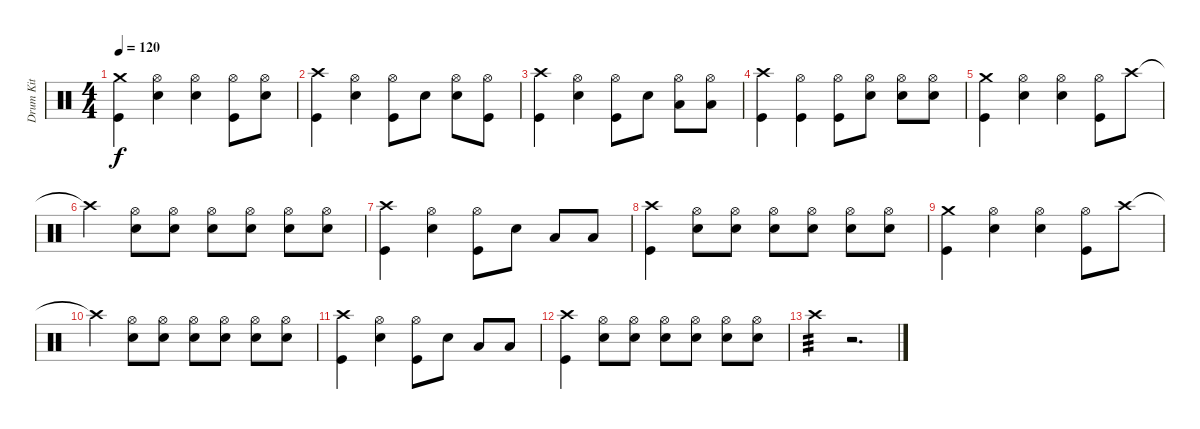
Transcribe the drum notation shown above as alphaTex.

\track ("Drum Kit" "Drum Kit") {instrument percussion}
\staff {score}
\articulation defaults
\ts (4 4)
\tempo 120
\clef neutral
\ks c
("Crash medium (hit)" "Kick (hit)").4{dy f} ("Hi-Hat (open)" "Snare (hit) 2").4 ("Hi-Hat (open)" "Snare (hit) 2").4 ("Hi-Hat (open)" "Kick (hit)").8 ("Hi-Hat (open)" "Snare (hit) 2").8 |
("Crash high (hit)" "Kick (hit)").4 ("Hi-Hat (open)" "Snare (hit) 2").4 ("Hi-Hat (open)" "Kick (hit)").8 "Snare (hit) 2".8 ("Hi-Hat (open)" "Snare (hit) 2").8 ("Hi-Hat (open)" "Kick (hit)").8 |
("Crash high (hit)" "Kick (hit)").4 ("Hi-Hat (open)" "Snare (hit) 2").4 ("Hi-Hat (open)" "Kick (hit)").8 "Snare (hit) 2".8 ("Hi-Hat (open)" "Low Tom (hit)").8 ("Hi-Hat (open)" "Low Floor Tom (hit)").8 |
("Crash high (hit)" "Kick (hit)").4 ("Hi-Hat (open)" "Kick (hit)").4 ("Hi-Hat (open)" "Kick (hit)").8 ("Hi-Hat (open)" "Snare (hit) 2").8 ("Hi-Hat (open)" "Snare (hit) 2").8 ("Hi-Hat (open)" "Snare (hit) 2").8 |
("Crash medium (hit)" "Kick (hit)").4 ("Hi-Hat (open)" "Snare (hit) 2").4 ("Hi-Hat (open)" "Snare (hit) 2").4 ("Hi-Hat (open)" "Kick (hit)").8 "Crash high (hit)".8 |
"Crash high (hit)"{t}.4 ("Hi-Hat (open)" "Snare (hit) 2").8 ("Hi-Hat (open)" "Snare (hit) 2").8 ("Hi-Hat (open)" "Snare (hit) 2").8 ("Hi-Hat (open)" "Snare (hit) 2").8 ("Hi-Hat (open)" "Snare (hit) 2").8 ("Hi-Hat (open)" "Snare (hit) 2").8 |
("Crash high (hit)" "Kick (hit)").4 ("Hi-Hat (open)" "Snare (hit) 2").4 ("Hi-Hat (open)" "Kick (hit)").8 "Snare (hit) 2".8 "Low Tom (hit)".8 "Low Floor Tom (hit)".8 |
("Crash high (hit)" "Kick (hit)").4 ("Hi-Hat (open)" "Snare (hit) 2").8 ("Hi-Hat (open)" "Snare (hit) 2").8 ("Hi-Hat (open)" "Snare (hit) 2").8 ("Hi-Hat (open)" "Snare (hit) 2").8 ("Hi-Hat (open)" "Snare (hit) 2").8 ("Hi-Hat (open)" "Snare (hit) 2").8 |
("Crash medium (hit)" "Kick (hit)").4 ("Hi-Hat (open)" "Snare (hit) 2").4 ("Hi-Hat (open)" "Snare (hit) 2").4 ("Hi-Hat (open)" "Kick (hit)").8 "Crash high (hit)".8 |
"Crash high (hit)"{t}.4 ("Hi-Hat (open)" "Snare (hit) 2").8 ("Hi-Hat (open)" "Snare (hit) 2").8 ("Hi-Hat (open)" "Snare (hit) 2").8 ("Hi-Hat (open)" "Snare (hit) 2").8 ("Hi-Hat (open)" "Snare (hit) 2").8 ("Hi-Hat (open)" "Snare (hit) 2").8 |
("Crash high (hit)" "Kick (hit)").4 ("Hi-Hat (open)" "Snare (hit) 2").4 ("Hi-Hat (open)" "Kick (hit)").8 "Snare (hit) 2".8 "Low Tom (hit)".8 "Low Floor Tom (hit)".8 |
("Crash high (hit)" "Kick (hit)").4 ("Hi-Hat (open)" "Snare (hit) 2").8 ("Hi-Hat (open)" "Snare (hit) 2").8 ("Hi-Hat (open)" "Snare (hit) 2").8 ("Hi-Hat (open)" "Snare (hit) 2").8 ("Hi-Hat (open)" "Snare (hit) 2").8 ("Hi-Hat (open)" "Snare (hit) 2").8 |
"Crash high (hit)".4{tp 3} r.2{d}
